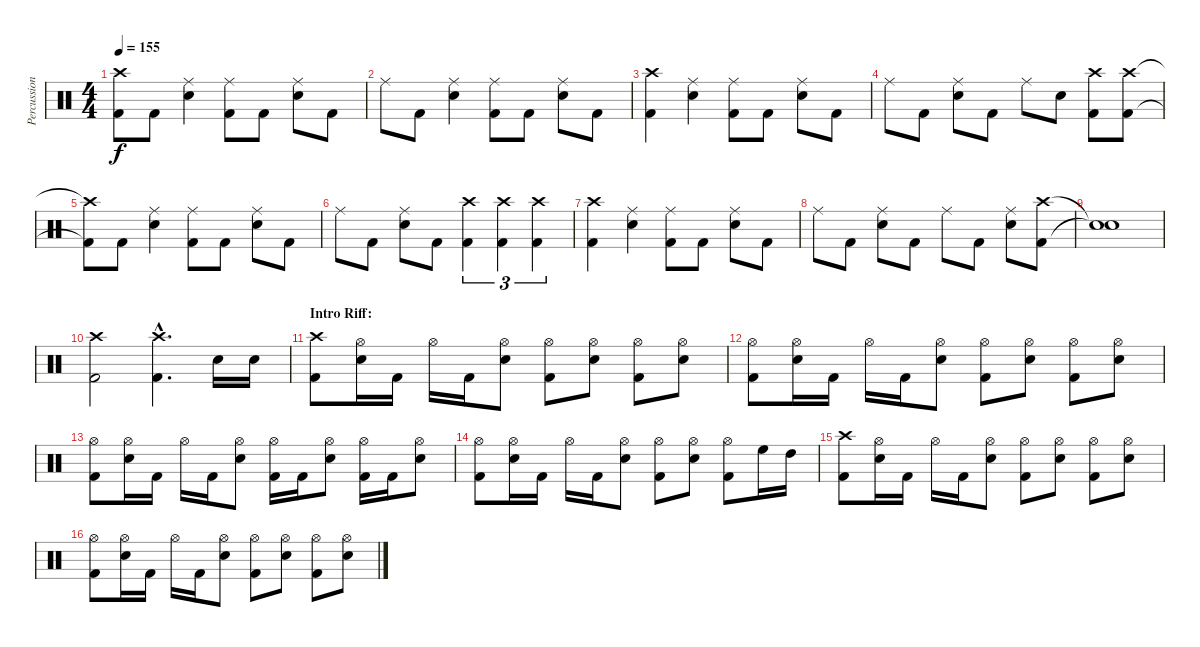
\track ("Percussion" "Percussion") {instrument percussion}
\staff {score}
\articulation defaults
\ts (4 4)
\tempo 155
\clef neutral
\ks c
("Crash high (hit)"{t} "Kick (hit) 2"{t}).8{dy f} "Kick (hit) 2".8 ("Ride (middle)" "Electric Snare (hit)").4 ("Ride (middle)" "Kick (hit) 2").8 "Kick (hit) 2".8 ("Ride (middle)" "Electric Snare (hit)").8 "Kick (hit) 2".8 |
"Ride (middle)".8 "Kick (hit) 2".8 ("Ride (middle)" "Electric Snare (hit)").4 ("Ride (middle)" "Kick (hit) 2").8 "Kick (hit) 2".8 ("Ride (middle)" "Electric Snare (hit)").8 "Kick (hit) 2".8 |
("Crash high (hit)" "Kick (hit) 2").4 ("Ride (middle)" "Electric Snare (hit)").4 ("Ride (middle)" "Kick (hit) 2").8 "Kick (hit) 2".8 ("Ride (middle)" "Electric Snare (hit)").8 "Kick (hit) 2".8 |
"Ride (middle)".8 "Kick (hit) 2".8 ("Ride (middle)" "Electric Snare (hit)").8 "Kick (hit) 2".8 "Ride (middle)".8 "Electric Snare (hit)".8 ("Crash high (hit)" "Kick (hit) 2").8 ("Crash high (hit)" "Kick (hit) 2").8 |
("Crash high (hit)"{t} "Kick (hit) 2"{t}).8 "Kick (hit) 2".8 ("Ride (middle)" "Electric Snare (hit)").4 ("Ride (middle)" "Kick (hit) 2").8 "Kick (hit) 2".8 ("Ride (middle)" "Electric Snare (hit)").8 "Kick (hit) 2".8 |
"Ride (middle)".8 "Kick (hit) 2".8 ("Ride (middle)" "Electric Snare (hit)").8 "Kick (hit) 2".8 ("Crash high (hit)" "Kick (hit) 2").4{tu (3 2)} ("Crash high (hit)" "Kick (hit) 2").4{tu (3 2)} ("Crash high (hit)" "Kick (hit) 2").4{tu (3 2)} |
("Crash high (hit)" "Kick (hit) 2").4 ("Ride (middle)" "Electric Snare (hit)").4 ("Ride (middle)" "Kick (hit) 2").8 "Kick (hit) 2".8 ("Ride (middle)" "Electric Snare (hit)").8 "Kick (hit) 2".8 |
"Ride (middle)".8 "Kick (hit) 2".8 ("Ride (middle)" "Electric Snare (hit)").8 "Kick (hit) 2".8 "Ride (middle)".8 "Kick (hit) 2".8 ("Ride (middle)" "Electric Snare (hit)").8 ("Crash high (hit)" "Kick (hit) 2").8 |
("Snare (hit)"{t} "Snare (hit)"{t}).1 |
("Crash high (hit)" "Kick (hit) 2").2 ("Crash high (hit)"{hac} "Kick (hit) 2"{hac}).4{d} "Electric Snare (hit)".16 "Electric Snare (hit)".16 |
\section ("" "Intro Riff:")
("Crash high (hit)" "Kick (hit) 2").8 ("Hi-Hat (open)" "Electric Snare (hit)").16 "Kick (hit) 2".16 "Hi-Hat (open)".16 "Kick (hit) 2".16 ("Hi-Hat (open)" "Electric Snare (hit)").8 ("Hi-Hat (open)" "Kick (hit) 2").8 ("Hi-Hat (open)" "Electric Snare (hit)").8 ("Hi-Hat (open)" "Kick (hit) 2").8 ("Hi-Hat (open)" "Electric Snare (hit)").8 |
("Hi-Hat (open)" "Kick (hit) 2").8 ("Hi-Hat (open)" "Electric Snare (hit)").16 "Kick (hit) 2".16 "Hi-Hat (open)".16 "Kick (hit) 2".16 ("Hi-Hat (open)" "Electric Snare (hit)").8 ("Hi-Hat (open)" "Kick (hit) 2").8 ("Hi-Hat (open)" "Electric Snare (hit)").8 ("Hi-Hat (open)" "Kick (hit) 2").8 ("Hi-Hat (open)" "Electric Snare (hit)").8 |
("Hi-Hat (open)" "Kick (hit) 2").8 ("Hi-Hat (open)" "Electric Snare (hit)").16 "Kick (hit) 2".16 "Hi-Hat (open)".16 "Kick (hit) 2".16 ("Hi-Hat (open)" "Electric Snare (hit)").8 ("Hi-Hat (open)" "Kick (hit) 2").16 "Kick (hit) 2".16 ("Hi-Hat (open)" "Electric Snare (hit)").8 ("Hi-Hat (open)" "Kick (hit) 2").16 "Kick (hit) 2".16 ("Hi-Hat (open)" "Electric Snare (hit)").8 |
("Hi-Hat (open)" "Kick (hit) 2").8 ("Hi-Hat (open)" "Electric Snare (hit)").16 "Kick (hit) 2".16 "Hi-Hat (open)".16 "Kick (hit) 2".16 ("Hi-Hat (open)" "Electric Snare (hit)").8 ("Hi-Hat (open)" "Kick (hit) 2").8 ("Hi-Hat (open)" "Electric Snare (hit)").8 ("Hi-Hat (open)" "Kick (hit) 2").8 "High Floor Tom (hit)".16 "High Tom (hit)".16 |
("Crash high (hit)" "Kick (hit) 2").8 ("Hi-Hat (open)" "Electric Snare (hit)").16 "Kick (hit) 2".16 "Hi-Hat (open)".16 "Kick (hit) 2".16 ("Hi-Hat (open)" "Electric Snare (hit)").8 ("Hi-Hat (open)" "Kick (hit) 2").8 ("Hi-Hat (open)" "Electric Snare (hit)").8 ("Hi-Hat (open)" "Kick (hit) 2").8 ("Hi-Hat (open)" "Electric Snare (hit)").8 |
("Hi-Hat (open)" "Kick (hit) 2").8 ("Hi-Hat (open)" "Electric Snare (hit)").16 "Kick (hit) 2".16 "Hi-Hat (open)".16 "Kick (hit) 2".16 ("Hi-Hat (open)" "Electric Snare (hit)").8 ("Hi-Hat (open)" "Kick (hit) 2").8 ("Hi-Hat (open)" "Electric Snare (hit)").8 ("Hi-Hat (open)" "Kick (hit) 2").8 ("Hi-Hat (open)" "Electric Snare (hit)").8
